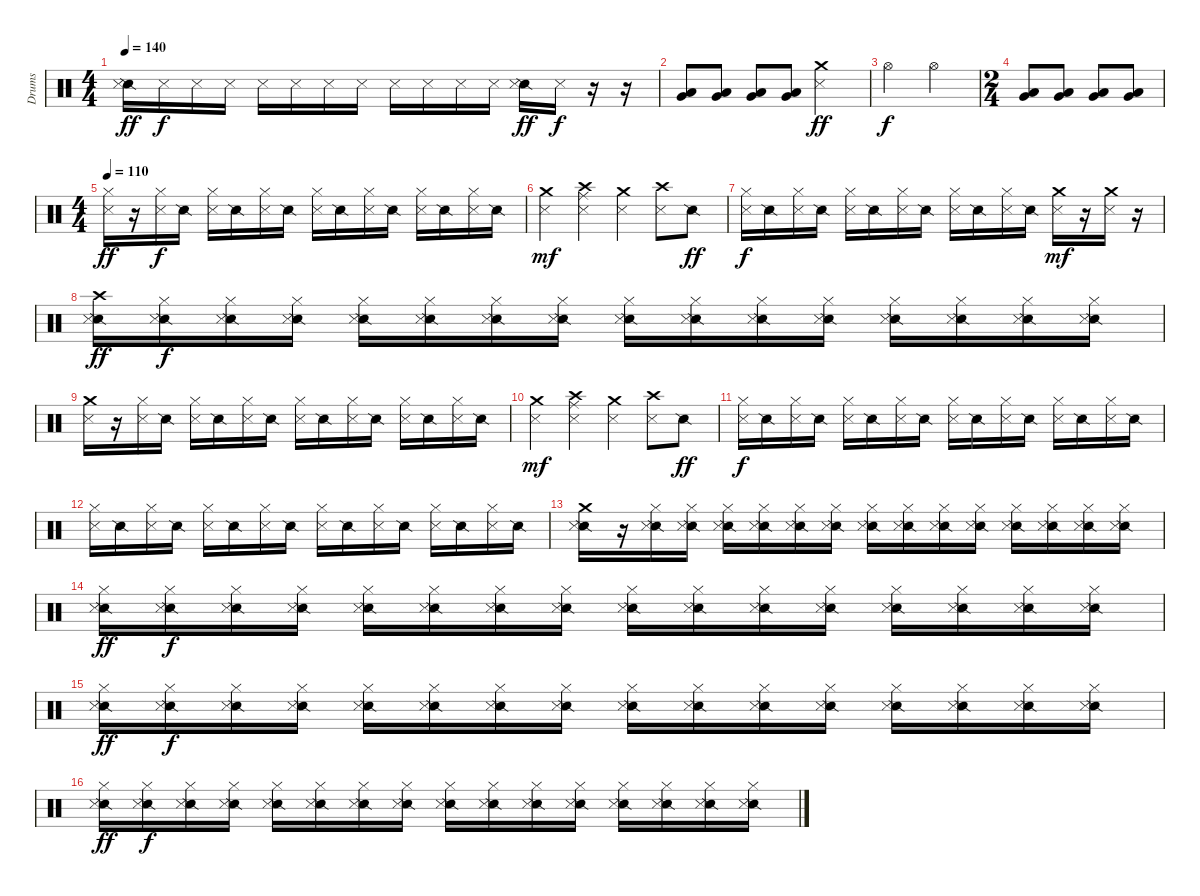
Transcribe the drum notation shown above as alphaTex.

\track ("Drums" "Drums") {instrument percussion}
\staff {score}
\articulation defaults
\ts (4 4)
\tempo 140
\clef neutral
\ks c
("Snare (side stick) 2" "Metronome (hit)").16{dy ff} "Metronome (hit)".16{dy f} "Metronome (hit)".16 "Metronome (hit)".16 "Metronome (hit)".16 "Metronome (hit)".16 "Metronome (hit)".16 "Metronome (hit)".16 "Metronome (hit)".16 "Metronome (hit)".16 "Metronome (hit)".16 "Metronome (hit)".16 ("Snare (side stick) 2" "Metronome (hit)").16{dy ff} "Metronome (hit)".16{dy f} r.16 r.16 |
("Very Low Tom (hit)" "Low Tom (hit)").8{bd 120} ("Very Low Tom (hit)" "Low Tom (hit)").8{bd 60} ("Very Low Tom (hit)" "Low Tom (hit)").8{bd 60} ("Very Low Tom (hit)" "Low Tom (hit)").8{bd 60} ("Crash medium (hit)" "Metronome (hit)").2{dy ff} |
"Hi-Hat (open)".2{dy f} "Hi-Hat (open)".2 |
\ts (2 4)
("Very Low Tom (hit)" "Low Tom (hit)").8{bd 120} ("Very Low Tom (hit)" "Low Tom (hit)").8{bd 60} ("Very Low Tom (hit)" "Low Tom (hit)").8{bd 60} ("Very Low Tom (hit)" "Low Tom (hit)").8{bd 60} |
\ts (4 4)
\tempo 110
("Metronome (hit)" "Hi-Hat (closed)").16{dy ff} r.16 ("Metronome (hit)" "Hi-Hat (closed)").16{dy f} "Snare (side stick) 2".16 ("Metronome (hit)" "Hi-Hat (closed)").16 "Snare (side stick) 2".16 ("Metronome (hit)" "Hi-Hat (closed)").16 "Snare (side stick) 2".16 ("Metronome (hit)" "Hi-Hat (closed)").16 "Snare (side stick) 2".16 ("Metronome (hit)" "Hi-Hat (closed)").16 "Snare (side stick) 2".16 ("Metronome (hit)" "Hi-Hat (closed)").16 "Snare (side stick) 2".16 ("Metronome (hit)" "Hi-Hat (closed)").16 "Snare (side stick) 2".16 |
("Metronome (hit)" "Crash medium (hit)").4{dy mf} ("Metronome (hit)" "Crash high (hit)" "Ride (middle)").4 ("Metronome (hit)" "Crash medium (hit)").4 ("Metronome (hit)" "Crash high (hit)").8 "Snare (side stick) 2".8{dy ff} |
("Metronome (hit)" "Hi-Hat (closed)").16{dy f} "Snare (side stick) 2".16 ("Metronome (hit)" "Hi-Hat (closed)").16 "Snare (side stick) 2".16 ("Metronome (hit)" "Hi-Hat (closed)").16 "Snare (side stick) 2".16 ("Metronome (hit)" "Hi-Hat (closed)").16 "Snare (side stick) 2".16 ("Metronome (hit)" "Hi-Hat (closed)").16 "Snare (side stick) 2".16 ("Metronome (hit)" "Hi-Hat (closed)").16 "Snare (side stick) 2".16 ("Crash medium (hit)" "Metronome (hit)").16{dy mf} r.16 ("Crash medium (hit)" "Metronome (hit)").16 r.16 |
("Crash high (hit)" "Snare (side stick) 2" "Metronome (hit)").16{dy ff} ("Hi-Hat (closed)" "Snare (side stick) 2" "Metronome (hit)").16{dy f} ("Hi-Hat (closed)" "Snare (side stick) 2" "Metronome (hit)").16 ("Hi-Hat (closed)" "Snare (side stick) 2" "Metronome (hit)").16 ("Hi-Hat (closed)" "Snare (side stick) 2" "Metronome (hit)").16 ("Hi-Hat (closed)" "Snare (side stick) 2" "Metronome (hit)").16 ("Hi-Hat (closed)" "Snare (side stick) 2" "Metronome (hit)").16 ("Hi-Hat (closed)" "Snare (side stick) 2" "Metronome (hit)").16 ("Hi-Hat (closed)" "Snare (side stick) 2" "Metronome (hit)").16 ("Hi-Hat (closed)" "Snare (side stick) 2" "Metronome (hit)").16 ("Hi-Hat (closed)" "Snare (side stick) 2" "Metronome (hit)").16 ("Hi-Hat (closed)" "Snare (side stick) 2" "Metronome (hit)").16 ("Hi-Hat (closed)" "Snare (side stick) 2" "Metronome (hit)").16 ("Hi-Hat (closed)" "Snare (side stick) 2" "Metronome (hit)").16 ("Hi-Hat (closed)" "Snare (side stick) 2" "Metronome (hit)").16 ("Hi-Hat (closed)" "Snare (side stick) 2" "Metronome (hit)").16 |
("Crash medium (hit)" "Metronome (hit)").16 r.16 ("Metronome (hit)" "Hi-Hat (closed)").16 "Snare (side stick) 2".16 ("Metronome (hit)" "Hi-Hat (closed)").16 "Snare (side stick) 2".16 ("Metronome (hit)" "Hi-Hat (closed)").16 "Snare (side stick) 2".16 ("Metronome (hit)" "Hi-Hat (closed)").16 "Snare (side stick) 2".16 ("Metronome (hit)" "Hi-Hat (closed)").16 "Snare (side stick) 2".16 ("Metronome (hit)" "Hi-Hat (closed)").16 "Snare (side stick) 2".16 ("Metronome (hit)" "Hi-Hat (closed)").16 "Snare (side stick) 2".16 |
("Metronome (hit)" "Crash medium (hit)").4{dy mf} ("Metronome (hit)" "Crash high (hit)" "Ride (middle)").4 ("Metronome (hit)" "Crash medium (hit)").4 ("Metronome (hit)" "Crash high (hit)").8 "Snare (side stick) 2".8{dy ff} |
("Metronome (hit)" "Hi-Hat (closed)").16{dy f} "Snare (side stick) 2".16 ("Metronome (hit)" "Hi-Hat (closed)").16 "Snare (side stick) 2".16 ("Metronome (hit)" "Hi-Hat (closed)").16 "Snare (side stick) 2".16 ("Metronome (hit)" "Hi-Hat (closed)").16 "Snare (side stick) 2".16 ("Metronome (hit)" "Hi-Hat (closed)").16 "Snare (side stick) 2".16 ("Metronome (hit)" "Hi-Hat (closed)").16 "Snare (side stick) 2".16 ("Metronome (hit)" "Hi-Hat (closed)").16 "Snare (side stick) 2".16 ("Metronome (hit)" "Hi-Hat (closed)").16 "Snare (side stick) 2".16 |
("Metronome (hit)" "Hi-Hat (closed)").16 "Snare (side stick) 2".16 ("Metronome (hit)" "Hi-Hat (closed)").16 "Snare (side stick) 2".16 ("Metronome (hit)" "Hi-Hat (closed)").16 "Snare (side stick) 2".16 ("Metronome (hit)" "Hi-Hat (closed)").16 "Snare (side stick) 2".16 ("Metronome (hit)" "Hi-Hat (closed)").16 "Snare (side stick) 2".16 ("Metronome (hit)" "Hi-Hat (closed)").16 "Snare (side stick) 2".16 ("Metronome (hit)" "Hi-Hat (closed)").16 "Snare (side stick) 2".16 ("Metronome (hit)" "Hi-Hat (closed)").16 "Snare (side stick) 2".16 |
("Crash medium (hit)" "Snare (side stick) 2" "Metronome (hit)").16 r.16 ("Hi-Hat (closed)" "Snare (side stick) 2" "Metronome (hit)").16 ("Hi-Hat (closed)" "Snare (side stick) 2" "Metronome (hit)").16 ("Hi-Hat (closed)" "Snare (side stick) 2" "Metronome (hit)").16 ("Hi-Hat (closed)" "Snare (side stick) 2" "Metronome (hit)").16 ("Hi-Hat (closed)" "Snare (side stick) 2" "Metronome (hit)").16 ("Hi-Hat (closed)" "Snare (side stick) 2" "Metronome (hit)").16 ("Hi-Hat (closed)" "Snare (side stick) 2" "Metronome (hit)").16 ("Hi-Hat (closed)" "Snare (side stick) 2" "Metronome (hit)").16 ("Hi-Hat (closed)" "Snare (side stick) 2" "Metronome (hit)").16 ("Hi-Hat (closed)" "Snare (side stick) 2" "Metronome (hit)").16 ("Hi-Hat (closed)" "Snare (side stick) 2" "Metronome (hit)").16 ("Hi-Hat (closed)" "Snare (side stick) 2" "Metronome (hit)").16 ("Hi-Hat (closed)" "Snare (side stick) 2" "Metronome (hit)").16 ("Hi-Hat (closed)" "Snare (side stick) 2" "Metronome (hit)").16 |
("Hi-Hat (closed)" "Snare (side stick) 2" "Metronome (hit)").16{dy ff} ("Hi-Hat (closed)" "Snare (side stick) 2" "Metronome (hit)").16{dy f} ("Hi-Hat (closed)" "Snare (side stick) 2" "Metronome (hit)").16 ("Hi-Hat (closed)" "Snare (side stick) 2" "Metronome (hit)").16 ("Hi-Hat (closed)" "Snare (side stick) 2" "Metronome (hit)").16 ("Hi-Hat (closed)" "Snare (side stick) 2" "Metronome (hit)").16 ("Hi-Hat (closed)" "Snare (side stick) 2" "Metronome (hit)").16 ("Hi-Hat (closed)" "Snare (side stick) 2" "Metronome (hit)").16 ("Hi-Hat (closed)" "Snare (side stick) 2" "Metronome (hit)").16 ("Hi-Hat (closed)" "Snare (side stick) 2" "Metronome (hit)").16 ("Hi-Hat (closed)" "Snare (side stick) 2" "Metronome (hit)").16 ("Hi-Hat (closed)" "Snare (side stick) 2" "Metronome (hit)").16 ("Hi-Hat (closed)" "Snare (side stick) 2" "Metronome (hit)").16 ("Hi-Hat (closed)" "Snare (side stick) 2" "Metronome (hit)").16 ("Hi-Hat (closed)" "Snare (side stick) 2" "Metronome (hit)").16 ("Hi-Hat (closed)" "Snare (side stick) 2" "Metronome (hit)").16 |
("Hi-Hat (closed)" "Snare (side stick) 2" "Metronome (hit)").16{dy ff} ("Hi-Hat (closed)" "Snare (side stick) 2" "Metronome (hit)").16{dy f} ("Hi-Hat (closed)" "Snare (side stick) 2" "Metronome (hit)").16 ("Hi-Hat (closed)" "Snare (side stick) 2" "Metronome (hit)").16 ("Hi-Hat (closed)" "Snare (side stick) 2" "Metronome (hit)").16 ("Hi-Hat (closed)" "Snare (side stick) 2" "Metronome (hit)").16 ("Hi-Hat (closed)" "Snare (side stick) 2" "Metronome (hit)").16 ("Hi-Hat (closed)" "Snare (side stick) 2" "Metronome (hit)").16 ("Hi-Hat (closed)" "Snare (side stick) 2" "Metronome (hit)").16 ("Hi-Hat (closed)" "Snare (side stick) 2" "Metronome (hit)").16 ("Hi-Hat (closed)" "Snare (side stick) 2" "Metronome (hit)").16 ("Hi-Hat (closed)" "Snare (side stick) 2" "Metronome (hit)").16 ("Hi-Hat (closed)" "Snare (side stick) 2" "Metronome (hit)").16 ("Hi-Hat (closed)" "Snare (side stick) 2" "Metronome (hit)").16 ("Hi-Hat (closed)" "Snare (side stick) 2" "Metronome (hit)").16 ("Hi-Hat (closed)" "Snare (side stick) 2" "Metronome (hit)").16 |
("Hi-Hat (closed)" "Snare (side stick) 2" "Metronome (hit)").16{dy ff} ("Hi-Hat (closed)" "Snare (side stick) 2" "Metronome (hit)").16{dy f} ("Hi-Hat (closed)" "Snare (side stick) 2" "Metronome (hit)").16 ("Hi-Hat (closed)" "Snare (side stick) 2" "Metronome (hit)").16 ("Hi-Hat (closed)" "Snare (side stick) 2" "Metronome (hit)").16 ("Hi-Hat (closed)" "Snare (side stick) 2" "Metronome (hit)").16 ("Hi-Hat (closed)" "Snare (side stick) 2" "Metronome (hit)").16 ("Hi-Hat (closed)" "Snare (side stick) 2" "Metronome (hit)").16 ("Hi-Hat (closed)" "Snare (side stick) 2" "Metronome (hit)").16 ("Hi-Hat (closed)" "Snare (side stick) 2" "Metronome (hit)").16 ("Hi-Hat (closed)" "Snare (side stick) 2" "Metronome (hit)").16 ("Hi-Hat (closed)" "Snare (side stick) 2" "Metronome (hit)").16 ("Hi-Hat (closed)" "Snare (side stick) 2" "Metronome (hit)").16 ("Hi-Hat (closed)" "Snare (side stick) 2" "Metronome (hit)").16 ("Hi-Hat (closed)" "Snare (side stick) 2" "Metronome (hit)").16 ("Hi-Hat (closed)" "Snare (side stick) 2" "Metronome (hit)").16
